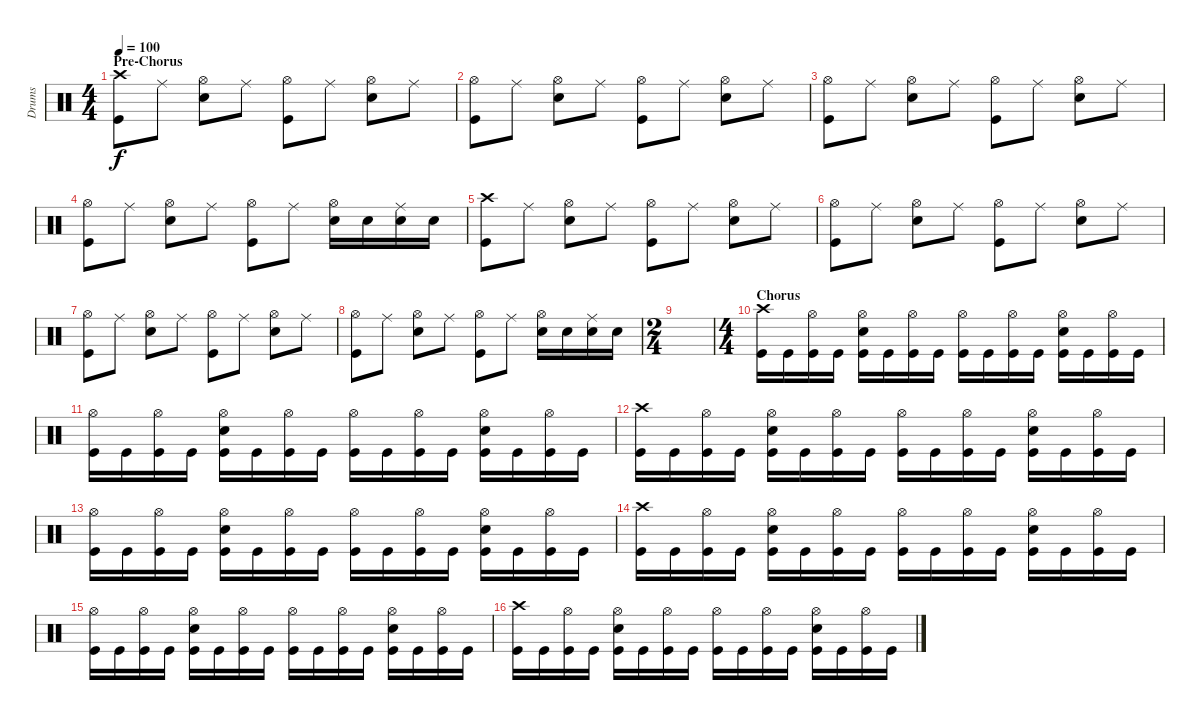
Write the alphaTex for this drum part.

\track ("Drums" "Drums") {instrument percussion}
\staff {score}
\articulation defaults
\ts (4 4)
\section ("" "Pre-Chorus")
\tempo 100
\clef neutral
\ks c
("Crash high (hit)" "Kick (hit)").8{dy f} "Ride (middle)".8 ("Hi-Hat (open)" "Electric Snare (hit)").8 "Ride (middle)".8 ("Hi-Hat (open)" "Kick (hit)").8 "Ride (middle)".8 ("Hi-Hat (open)" "Electric Snare (hit)").8 "Ride (middle)".8 |
("Hi-Hat (open)" "Kick (hit)").8 "Ride (middle)".8 ("Hi-Hat (open)" "Electric Snare (hit)").8 "Ride (middle)".8 ("Hi-Hat (open)" "Kick (hit)").8 "Ride (middle)".8 ("Hi-Hat (open)" "Electric Snare (hit)").8 "Ride (middle)".8 |
("Hi-Hat (open)" "Kick (hit)").8 "Ride (middle)".8 ("Hi-Hat (open)" "Electric Snare (hit)").8 "Ride (middle)".8 ("Hi-Hat (open)" "Kick (hit)").8 "Ride (middle)".8 ("Hi-Hat (open)" "Electric Snare (hit)").8 "Ride (middle)".8 |
("Hi-Hat (open)" "Kick (hit)").8 "Ride (middle)".8 ("Hi-Hat (open)" "Electric Snare (hit)").8 "Ride (middle)".8 ("Hi-Hat (open)" "Kick (hit)").8 "Ride (middle)".8 ("Hi-Hat (open)" "Electric Snare (hit)").16 "Electric Snare (hit)".16 ("Ride (middle)" "Electric Snare (hit)").16 "Electric Snare (hit)".16 |
("Crash high (hit)" "Kick (hit)").8 "Ride (middle)".8 ("Hi-Hat (open)" "Electric Snare (hit)").8 "Ride (middle)".8 ("Hi-Hat (open)" "Kick (hit)").8 "Ride (middle)".8 ("Hi-Hat (open)" "Electric Snare (hit)").8 "Ride (middle)".8 |
("Hi-Hat (open)" "Kick (hit)").8 "Ride (middle)".8 ("Hi-Hat (open)" "Electric Snare (hit)").8 "Ride (middle)".8 ("Hi-Hat (open)" "Kick (hit)").8 "Ride (middle)".8 ("Hi-Hat (open)" "Electric Snare (hit)").8 "Ride (middle)".8 |
("Hi-Hat (open)" "Kick (hit)").8 "Ride (middle)".8 ("Hi-Hat (open)" "Electric Snare (hit)").8 "Ride (middle)".8 ("Hi-Hat (open)" "Kick (hit)").8 "Ride (middle)".8 ("Hi-Hat (open)" "Electric Snare (hit)").8 "Ride (middle)".8 |
("Hi-Hat (open)" "Kick (hit)").8 "Ride (middle)".8 ("Hi-Hat (open)" "Electric Snare (hit)").8 "Ride (middle)".8 ("Hi-Hat (open)" "Kick (hit)").8 "Ride (middle)".8 ("Hi-Hat (open)" "Electric Snare (hit)").16 "Electric Snare (hit)".16 ("Ride (middle)" "Electric Snare (hit)").16 "Electric Snare (hit)".16 |
\ts (2 4)
|
\ts (4 4)
\section ("" "Chorus")
("Crash high (hit)" "Kick (hit)").16 "Kick (hit)".16 ("Hi-Hat (open)" "Kick (hit)").16 "Kick (hit)".16 ("Hi-Hat (open)" "Electric Snare (hit)" "Kick (hit)").16 "Kick (hit)".16 ("Hi-Hat (open)" "Kick (hit)").16 "Kick (hit)".16 ("Hi-Hat (open)" "Kick (hit)").16 "Kick (hit)".16 ("Hi-Hat (open)" "Kick (hit)").16 "Kick (hit)".16 ("Hi-Hat (open)" "Electric Snare (hit)" "Kick (hit)").16 "Kick (hit)".16 ("Hi-Hat (open)" "Kick (hit)").16 "Kick (hit)".16 |
("Hi-Hat (open)" "Kick (hit)").16 "Kick (hit)".16 ("Hi-Hat (open)" "Kick (hit)").16 "Kick (hit)".16 ("Hi-Hat (open)" "Electric Snare (hit)" "Kick (hit)").16 "Kick (hit)".16 ("Hi-Hat (open)" "Kick (hit)").16 "Kick (hit)".16 ("Hi-Hat (open)" "Kick (hit)").16 "Kick (hit)".16 ("Hi-Hat (open)" "Kick (hit)").16 "Kick (hit)".16 ("Hi-Hat (open)" "Electric Snare (hit)" "Kick (hit)").16 "Kick (hit)".16 ("Hi-Hat (open)" "Kick (hit)").16 "Kick (hit)".16 |
("Crash high (hit)" "Kick (hit)").16 "Kick (hit)".16 ("Hi-Hat (open)" "Kick (hit)").16 "Kick (hit)".16 ("Hi-Hat (open)" "Electric Snare (hit)" "Kick (hit)").16 "Kick (hit)".16 ("Hi-Hat (open)" "Kick (hit)").16 "Kick (hit)".16 ("Hi-Hat (open)" "Kick (hit)").16 "Kick (hit)".16 ("Hi-Hat (open)" "Kick (hit)").16 "Kick (hit)".16 ("Hi-Hat (open)" "Electric Snare (hit)" "Kick (hit)").16 "Kick (hit)".16 ("Hi-Hat (open)" "Kick (hit)").16 "Kick (hit)".16 |
("Hi-Hat (open)" "Kick (hit)").16 "Kick (hit)".16 ("Hi-Hat (open)" "Kick (hit)").16 "Kick (hit)".16 ("Hi-Hat (open)" "Electric Snare (hit)" "Kick (hit)").16 "Kick (hit)".16 ("Hi-Hat (open)" "Kick (hit)").16 "Kick (hit)".16 ("Hi-Hat (open)" "Kick (hit)").16 "Kick (hit)".16 ("Hi-Hat (open)" "Kick (hit)").16 "Kick (hit)".16 ("Hi-Hat (open)" "Electric Snare (hit)" "Kick (hit)").16 "Kick (hit)".16 ("Hi-Hat (open)" "Kick (hit)").16 "Kick (hit)".16 |
("Crash high (hit)" "Kick (hit)").16 "Kick (hit)".16 ("Hi-Hat (open)" "Kick (hit)").16 "Kick (hit)".16 ("Hi-Hat (open)" "Electric Snare (hit)" "Kick (hit)").16 "Kick (hit)".16 ("Hi-Hat (open)" "Kick (hit)").16 "Kick (hit)".16 ("Hi-Hat (open)" "Kick (hit)").16 "Kick (hit)".16 ("Hi-Hat (open)" "Kick (hit)").16 "Kick (hit)".16 ("Hi-Hat (open)" "Electric Snare (hit)" "Kick (hit)").16 "Kick (hit)".16 ("Hi-Hat (open)" "Kick (hit)").16 "Kick (hit)".16 |
("Hi-Hat (open)" "Kick (hit)").16 "Kick (hit)".16 ("Hi-Hat (open)" "Kick (hit)").16 "Kick (hit)".16 ("Hi-Hat (open)" "Electric Snare (hit)" "Kick (hit)").16 "Kick (hit)".16 ("Hi-Hat (open)" "Kick (hit)").16 "Kick (hit)".16 ("Hi-Hat (open)" "Kick (hit)").16 "Kick (hit)".16 ("Hi-Hat (open)" "Kick (hit)").16 "Kick (hit)".16 ("Hi-Hat (open)" "Electric Snare (hit)" "Kick (hit)").16 "Kick (hit)".16 ("Hi-Hat (open)" "Kick (hit)").16 "Kick (hit)".16 |
("Crash high (hit)" "Kick (hit)").16 "Kick (hit)".16 ("Hi-Hat (open)" "Kick (hit)").16 "Kick (hit)".16 ("Hi-Hat (open)" "Electric Snare (hit)" "Kick (hit)").16 "Kick (hit)".16 ("Hi-Hat (open)" "Kick (hit)").16 "Kick (hit)".16 ("Hi-Hat (open)" "Kick (hit)").16 "Kick (hit)".16 ("Hi-Hat (open)" "Kick (hit)").16 "Kick (hit)".16 ("Hi-Hat (open)" "Electric Snare (hit)" "Kick (hit)").16 "Kick (hit)".16 ("Hi-Hat (open)" "Kick (hit)").16 "Kick (hit)".16
